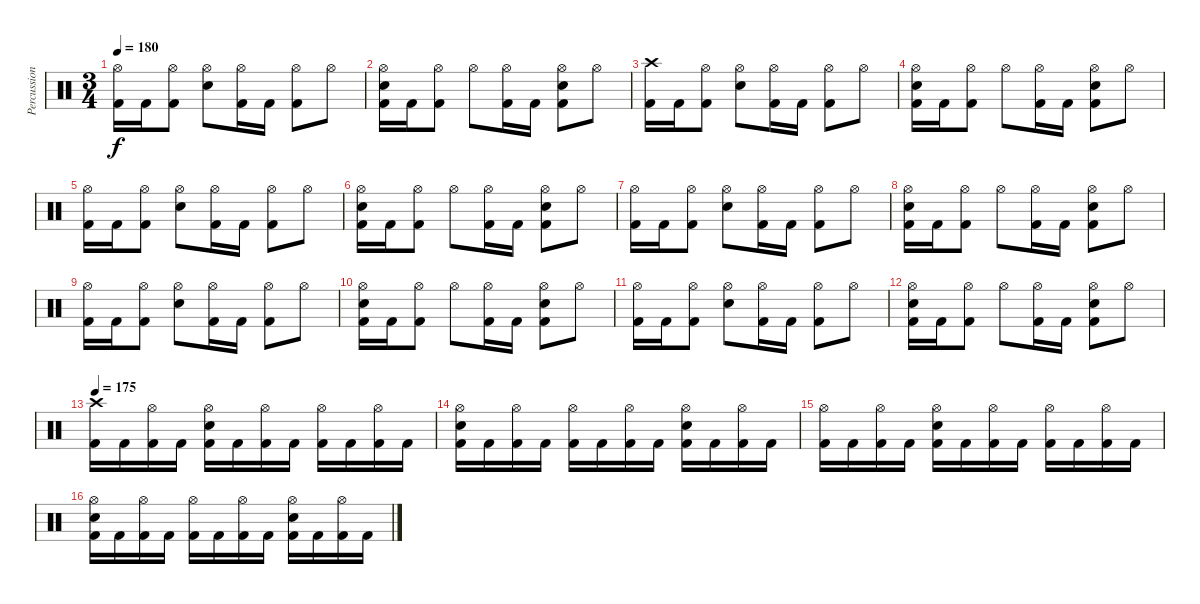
\track ("Percussion" "Percussion") {instrument percussion}
\staff {score}
\articulation defaults
\ts (3 4)
\tempo 180
\clef neutral
\ks c
("Hi-Hat (open)" "Kick (hit) 2").16{dy f} "Kick (hit) 2".16 ("Hi-Hat (open)" "Kick (hit) 2").8 ("Hi-Hat (open)" "Electric Snare (hit)").8 ("Hi-Hat (open)" "Kick (hit) 2").16 "Kick (hit) 2".16 ("Hi-Hat (open)" "Kick (hit) 2").8 "Hi-Hat (open)".8 |
("Hi-Hat (open)" "Electric Snare (hit)" "Kick (hit) 2").16 "Kick (hit) 2".16 ("Hi-Hat (open)" "Kick (hit) 2").8 "Hi-Hat (open)".8 ("Hi-Hat (open)" "Kick (hit) 2").16 "Kick (hit) 2".16 ("Hi-Hat (open)" "Electric Snare (hit)" "Kick (hit) 2").8 "Hi-Hat (open)".8 |
("Crash high (hit)" "Kick (hit) 2").16 "Kick (hit) 2".16 ("Hi-Hat (open)" "Kick (hit) 2").8 ("Hi-Hat (open)" "Electric Snare (hit)").8 ("Hi-Hat (open)" "Kick (hit) 2").16 "Kick (hit) 2".16 ("Hi-Hat (open)" "Kick (hit) 2").8 "Hi-Hat (open)".8 |
("Hi-Hat (open)" "Electric Snare (hit)" "Kick (hit) 2").16 "Kick (hit) 2".16 ("Hi-Hat (open)" "Kick (hit) 2").8 "Hi-Hat (open)".8 ("Hi-Hat (open)" "Kick (hit) 2").16 "Kick (hit) 2".16 ("Hi-Hat (open)" "Electric Snare (hit)" "Kick (hit) 2").8 "Hi-Hat (open)".8 |
("Hi-Hat (open)" "Kick (hit) 2").16 "Kick (hit) 2".16 ("Hi-Hat (open)" "Kick (hit) 2").8 ("Hi-Hat (open)" "Electric Snare (hit)").8 ("Hi-Hat (open)" "Kick (hit) 2").16 "Kick (hit) 2".16 ("Hi-Hat (open)" "Kick (hit) 2").8 "Hi-Hat (open)".8 |
("Hi-Hat (open)" "Electric Snare (hit)" "Kick (hit) 2").16 "Kick (hit) 2".16 ("Hi-Hat (open)" "Kick (hit) 2").8 "Hi-Hat (open)".8 ("Hi-Hat (open)" "Kick (hit) 2").16 "Kick (hit) 2".16 ("Hi-Hat (open)" "Electric Snare (hit)" "Kick (hit) 2").8 "Hi-Hat (open)".8 |
("Hi-Hat (open)" "Kick (hit) 2").16 "Kick (hit) 2".16 ("Hi-Hat (open)" "Kick (hit) 2").8 ("Hi-Hat (open)" "Electric Snare (hit)").8 ("Hi-Hat (open)" "Kick (hit) 2").16 "Kick (hit) 2".16 ("Hi-Hat (open)" "Kick (hit) 2").8 "Hi-Hat (open)".8 |
("Hi-Hat (open)" "Electric Snare (hit)" "Kick (hit) 2").16 "Kick (hit) 2".16 ("Hi-Hat (open)" "Kick (hit) 2").8 "Hi-Hat (open)".8 ("Hi-Hat (open)" "Kick (hit) 2").16 "Kick (hit) 2".16 ("Hi-Hat (open)" "Electric Snare (hit)" "Kick (hit) 2").8 "Hi-Hat (open)".8 |
("Hi-Hat (open)" "Kick (hit) 2").16 "Kick (hit) 2".16 ("Hi-Hat (open)" "Kick (hit) 2").8 ("Hi-Hat (open)" "Electric Snare (hit)").8 ("Hi-Hat (open)" "Kick (hit) 2").16 "Kick (hit) 2".16 ("Hi-Hat (open)" "Kick (hit) 2").8 "Hi-Hat (open)".8 |
("Hi-Hat (open)" "Electric Snare (hit)" "Kick (hit) 2").16 "Kick (hit) 2".16 ("Hi-Hat (open)" "Kick (hit) 2").8 "Hi-Hat (open)".8 ("Hi-Hat (open)" "Kick (hit) 2").16 "Kick (hit) 2".16 ("Hi-Hat (open)" "Electric Snare (hit)" "Kick (hit) 2").8 "Hi-Hat (open)".8 |
("Hi-Hat (open)" "Kick (hit) 2").16 "Kick (hit) 2".16 ("Hi-Hat (open)" "Kick (hit) 2").8 ("Hi-Hat (open)" "Electric Snare (hit)").8 ("Hi-Hat (open)" "Kick (hit) 2").16 "Kick (hit) 2".16 ("Hi-Hat (open)" "Kick (hit) 2").8 "Hi-Hat (open)".8 |
("Hi-Hat (open)" "Electric Snare (hit)" "Kick (hit) 2").16 "Kick (hit) 2".16 ("Hi-Hat (open)" "Kick (hit) 2").8 "Hi-Hat (open)".8 ("Hi-Hat (open)" "Kick (hit) 2").16 "Kick (hit) 2".16 ("Hi-Hat (open)" "Electric Snare (hit)" "Kick (hit) 2").8 "Hi-Hat (open)".8 |
\tempo 175
("Crash high (hit)" "Kick (hit) 2").16 "Kick (hit) 2".16 ("Hi-Hat (open)" "Kick (hit) 2").16 "Kick (hit) 2".16 ("Hi-Hat (open)" "Electric Snare (hit)" "Kick (hit) 2").16 "Kick (hit) 2".16 ("Hi-Hat (open)" "Kick (hit) 2").16 "Kick (hit) 2".16 ("Hi-Hat (open)" "Kick (hit) 2").16 "Kick (hit) 2".16 ("Hi-Hat (open)" "Kick (hit) 2").16 "Kick (hit) 2".16 |
("Hi-Hat (open)" "Electric Snare (hit)" "Kick (hit) 2").16 "Kick (hit) 2".16 ("Hi-Hat (open)" "Kick (hit) 2").16 "Kick (hit) 2".16 ("Hi-Hat (open)" "Kick (hit) 2").16 "Kick (hit) 2".16 ("Hi-Hat (open)" "Kick (hit) 2").16 "Kick (hit) 2".16 ("Hi-Hat (open)" "Electric Snare (hit)" "Kick (hit) 2").16 "Kick (hit) 2".16 ("Hi-Hat (open)" "Kick (hit) 2").16 "Kick (hit) 2".16 |
("Hi-Hat (open)" "Kick (hit) 2").16 "Kick (hit) 2".16 ("Hi-Hat (open)" "Kick (hit) 2").16 "Kick (hit) 2".16 ("Hi-Hat (open)" "Electric Snare (hit)" "Kick (hit) 2").16 "Kick (hit) 2".16 ("Hi-Hat (open)" "Kick (hit) 2").16 "Kick (hit) 2".16 ("Hi-Hat (open)" "Kick (hit) 2").16 "Kick (hit) 2".16 ("Hi-Hat (open)" "Kick (hit) 2").16 "Kick (hit) 2".16 |
("Hi-Hat (open)" "Electric Snare (hit)" "Kick (hit) 2").16 "Kick (hit) 2".16 ("Hi-Hat (open)" "Kick (hit) 2").16 "Kick (hit) 2".16 ("Hi-Hat (open)" "Kick (hit) 2").16 "Kick (hit) 2".16 ("Hi-Hat (open)" "Kick (hit) 2").16 "Kick (hit) 2".16 ("Hi-Hat (open)" "Electric Snare (hit)" "Kick (hit) 2").16 "Kick (hit) 2".16 ("Hi-Hat (open)" "Kick (hit) 2").16 "Kick (hit) 2".16
